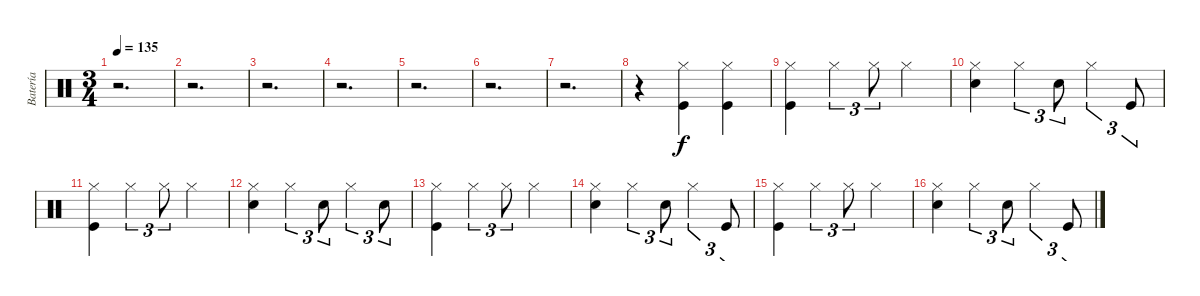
\track ("Batería" "Batería") {instrument percussion}
\staff {score}
\articulation defaults
\ts (3 4)
\tempo 135
\clef neutral
\ks c
r.2{d dy f} |
r.2{d} |
r.2{d} |
r.2{d} |
r.2{d} |
r.2{d} |
r.2{d} |
r.4 ("Hi-Hat (closed)" "Kick (hit)").4 ("Hi-Hat (closed)" "Kick (hit)").4 |
("Hi-Hat (closed)" "Kick (hit)").4 "Hi-Hat (closed)".4{tu (3 2)} "Hi-Hat (closed)".8{tu (3 2)} "Hi-Hat (closed)".4 |
("Hi-Hat (closed)" "Snare (hit) 2").4 "Hi-Hat (closed)".4{tu (3 2)} "Snare (hit) 2".8{tu (3 2)} "Hi-Hat (closed)".4{tu (3 2)} "Kick (hit)".8{tu (3 2)} |
("Hi-Hat (closed)" "Kick (hit)").4 "Hi-Hat (closed)".4{tu (3 2)} "Hi-Hat (closed)".8{tu (3 2)} "Hi-Hat (closed)".4 |
("Hi-Hat (closed)" "Snare (hit) 2").4 "Hi-Hat (closed)".4{tu (3 2)} "Snare (hit) 2".8{tu (3 2)} "Hi-Hat (closed)".4{tu (3 2)} "Snare (hit) 2".8{tu (3 2)} |
("Hi-Hat (closed)" "Kick (hit)").4 "Hi-Hat (closed)".4{tu (3 2)} "Hi-Hat (closed)".8{tu (3 2)} "Hi-Hat (closed)".4 |
("Hi-Hat (closed)" "Snare (hit) 2").4 "Hi-Hat (closed)".4{tu (3 2)} "Snare (hit) 2".8{tu (3 2)} "Hi-Hat (closed)".4{tu (3 2)} "Kick (hit)".8{tu (3 2)} |
("Hi-Hat (closed)" "Kick (hit)").4 "Hi-Hat (closed)".4{tu (3 2)} "Hi-Hat (closed)".8{tu (3 2)} "Hi-Hat (closed)".4 |
("Hi-Hat (closed)" "Snare (hit) 2").4 "Hi-Hat (closed)".4{tu (3 2)} "Snare (hit) 2".8{tu (3 2)} "Hi-Hat (closed)".4{tu (3 2)} "Kick (hit)".8{tu (3 2)}
